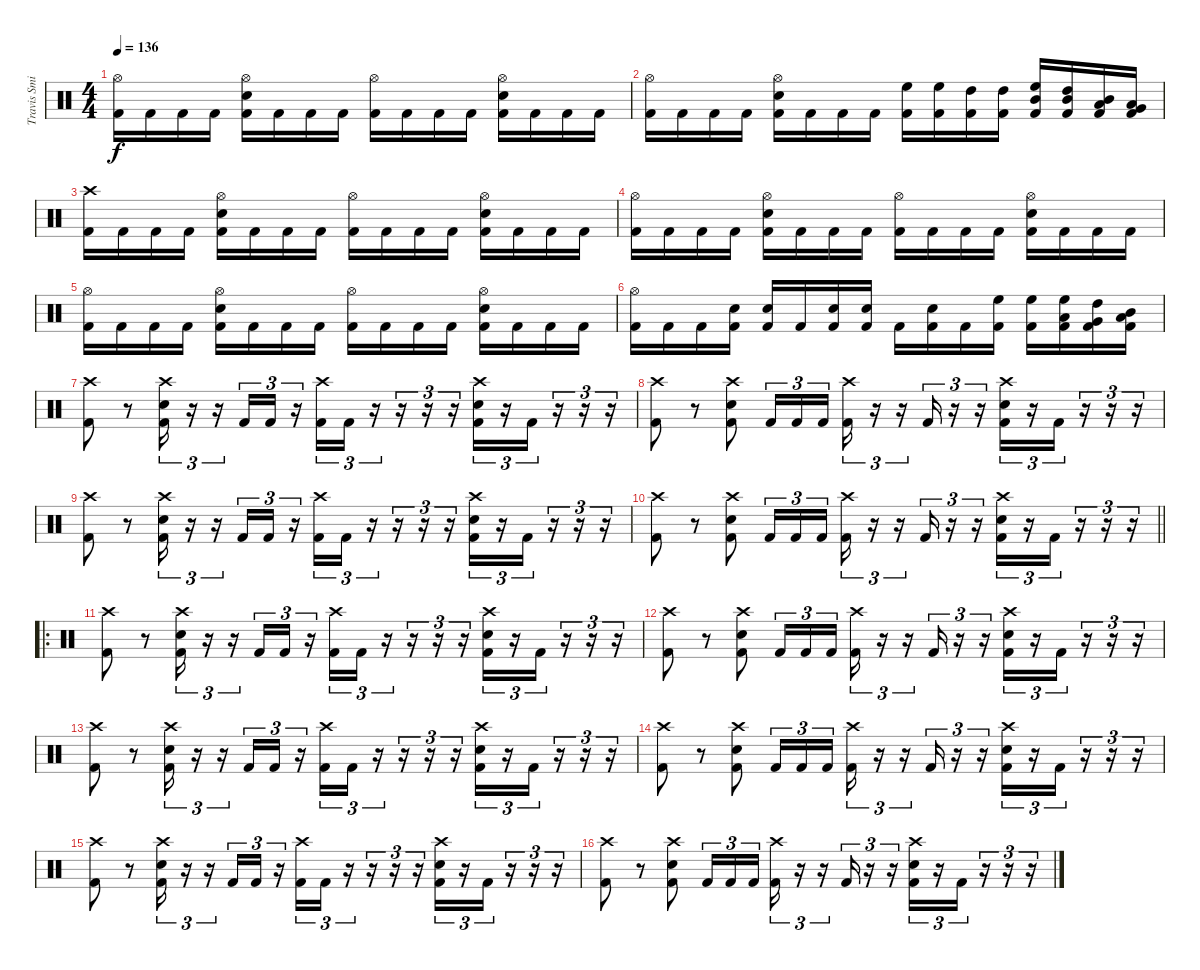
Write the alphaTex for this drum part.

\track ("Travis Smith" "Travis Smi") {instrument percussion}
\staff {score}
\articulation defaults
\ts (4 4)
\tempo 136
\clef neutral
\ks c
("Hi-Hat (open)" "Kick (hit) 2").16{dy f} "Kick (hit) 2".16 "Kick (hit) 2".16 "Kick (hit) 2".16 ("Hi-Hat (open)" "Snare (hit) 2" "Kick (hit) 2").16 "Kick (hit) 2".16 "Kick (hit) 2".16 "Kick (hit) 2".16 ("Hi-Hat (open)" "Kick (hit) 2").16 "Kick (hit) 2".16 "Kick (hit) 2".16 "Kick (hit) 2".16 ("Hi-Hat (open)" "Snare (hit) 2" "Kick (hit) 2").16 "Kick (hit) 2".16 "Kick (hit) 2".16 "Kick (hit) 2".16 |
("Hi-Hat (open)" "Kick (hit) 2").16 "Kick (hit) 2".16 "Kick (hit) 2".16 "Kick (hit) 2".16 ("Hi-Hat (open)" "Snare (hit) 2" "Kick (hit) 2").16 "Kick (hit) 2".16 "Kick (hit) 2".16 "Kick (hit) 2".16 ("High Floor Tom (hit)" "Kick (hit) 2").16 ("High Floor Tom (hit)" "Kick (hit) 2").16 ("High Tom (hit)" "Kick (hit) 2").16 ("High Tom (hit)" "Kick (hit) 2").16 ("Mid Tom (hit)" "High Floor Tom (hit)" "Kick (hit) 2").16 ("Mid Tom (hit)" "High Tom (hit)" "Kick (hit) 2").16 ("Low Tom (hit)" "Mid Tom (hit)" "Kick (hit) 2").16 ("Very Low Tom (hit)" "Low Tom (hit)" "Kick (hit) 2").16 |
("Crash high (hit)" "Kick (hit) 2").16 "Kick (hit) 2".16 "Kick (hit) 2".16 "Kick (hit) 2".16 ("Hi-Hat (open)" "Snare (hit) 2" "Kick (hit) 2").16 "Kick (hit) 2".16 "Kick (hit) 2".16 "Kick (hit) 2".16 ("Hi-Hat (open)" "Kick (hit) 2").16 "Kick (hit) 2".16 "Kick (hit) 2".16 "Kick (hit) 2".16 ("Hi-Hat (open)" "Snare (hit) 2" "Kick (hit) 2").16 "Kick (hit) 2".16 "Kick (hit) 2".16 "Kick (hit) 2".16 |
("Hi-Hat (open)" "Kick (hit) 2").16 "Kick (hit) 2".16 "Kick (hit) 2".16 "Kick (hit) 2".16 ("Hi-Hat (open)" "Snare (hit) 2" "Kick (hit) 2").16 "Kick (hit) 2".16 "Kick (hit) 2".16 "Kick (hit) 2".16 ("Hi-Hat (open)" "Kick (hit) 2").16 "Kick (hit) 2".16 "Kick (hit) 2".16 "Kick (hit) 2".16 ("Hi-Hat (open)" "Snare (hit) 2" "Kick (hit) 2").16 "Kick (hit) 2".16 "Kick (hit) 2".16 "Kick (hit) 2".16 |
("Hi-Hat (open)" "Kick (hit) 2").16 "Kick (hit) 2".16 "Kick (hit) 2".16 "Kick (hit) 2".16 ("Hi-Hat (open)" "Snare (hit) 2" "Kick (hit) 2").16 "Kick (hit) 2".16 "Kick (hit) 2".16 "Kick (hit) 2".16 ("Hi-Hat (open)" "Kick (hit) 2").16 "Kick (hit) 2".16 "Kick (hit) 2".16 "Kick (hit) 2".16 ("Hi-Hat (open)" "Snare (hit) 2" "Kick (hit) 2").16 "Kick (hit) 2".16 "Kick (hit) 2".16 "Kick (hit) 2".16 |
("Hi-Hat (open)" "Kick (hit) 2").16 "Kick (hit) 2".16 "Kick (hit) 2".16 ("Snare (hit) 2" "Kick (hit) 2").16 ("Snare (hit) 2" "Kick (hit) 2").16 "Kick (hit) 2".16 ("Snare (hit) 2" "Kick (hit) 2").16 ("Snare (hit) 2" "Kick (hit) 2").16 "Kick (hit) 2".16 ("Snare (hit) 2" "Kick (hit) 2").16 "Kick (hit) 2".16 ("High Floor Tom (hit)" "Kick (hit) 2").16 ("High Floor Tom (hit)" "Kick (hit) 2").16 ("Low Tom (hit)" "High Floor Tom (hit)" "Kick (hit) 2").16 ("Very Low Tom (hit)" "High Tom (hit)" "Kick (hit) 2").16 ("Low Floor Tom (hit)" "Mid Tom (hit)" "Kick (hit) 2").16 |
("Crash high (hit)" "Kick (hit) 2").8 r.8 ("Crash high (hit)" "Snare (hit) 2" "Kick (hit) 2").16{tu (3 2)} r.16{tu (3 2)} r.16{tu (3 2)} "Kick (hit) 2".16{tu (3 2)} "Kick (hit) 2".16{tu (3 2)} r.16{tu (3 2)} ("Crash high (hit)" "Kick (hit) 2").16{tu (3 2)} "Kick (hit) 2".16{tu (3 2)} r.16{tu (3 2)} r.16{tu (3 2)} r.16{tu (3 2)} r.16{tu (3 2)} ("Crash high (hit)" "Snare (hit) 2" "Kick (hit) 2").16{tu (3 2)} r.16{tu (3 2)} "Kick (hit) 2".16{tu (3 2)} r.16{tu (3 2)} r.16{tu (3 2)} r.16{tu (3 2)} |
("Crash high (hit)" "Kick (hit) 2").8 r.8 ("Crash high (hit)" "Snare (hit) 2" "Kick (hit) 2").8 "Kick (hit) 2".16{tu (3 2)} "Kick (hit) 2".16{tu (3 2)} "Kick (hit) 2".16{tu (3 2)} ("Crash high (hit)" "Kick (hit) 2").16{tu (3 2)} r.16{tu (3 2)} r.16{tu (3 2)} "Kick (hit) 2".16{tu (3 2)} r.16{tu (3 2)} r.16{tu (3 2)} ("Crash high (hit)" "Snare (hit) 2" "Kick (hit) 2").16{tu (3 2)} r.16{tu (3 2)} "Kick (hit) 2".16{tu (3 2)} r.16{tu (3 2)} r.16{tu (3 2)} r.16{tu (3 2)} |
("Crash high (hit)" "Kick (hit) 2").8 r.8 ("Crash high (hit)" "Snare (hit) 2" "Kick (hit) 2").16{tu (3 2)} r.16{tu (3 2)} r.16{tu (3 2)} "Kick (hit) 2".16{tu (3 2)} "Kick (hit) 2".16{tu (3 2)} r.16{tu (3 2)} ("Crash high (hit)" "Kick (hit) 2").16{tu (3 2)} "Kick (hit) 2".16{tu (3 2)} r.16{tu (3 2)} r.16{tu (3 2)} r.16{tu (3 2)} r.16{tu (3 2)} ("Crash high (hit)" "Snare (hit) 2" "Kick (hit) 2").16{tu (3 2)} r.16{tu (3 2)} "Kick (hit) 2".16{tu (3 2)} r.16{tu (3 2)} r.16{tu (3 2)} r.16{tu (3 2)} |
\barLineRight lightlight
("Crash high (hit)" "Kick (hit) 2").8 r.8 ("Crash high (hit)" "Snare (hit) 2" "Kick (hit) 2").8 "Kick (hit) 2".16{tu (3 2)} "Kick (hit) 2".16{tu (3 2)} "Kick (hit) 2".16{tu (3 2)} ("Crash high (hit)" "Kick (hit) 2").16{tu (3 2)} r.16{tu (3 2)} r.16{tu (3 2)} "Kick (hit) 2".16{tu (3 2)} r.16{tu (3 2)} r.16{tu (3 2)} ("Crash high (hit)" "Snare (hit) 2" "Kick (hit) 2").16{tu (3 2)} r.16{tu (3 2)} "Kick (hit) 2".16{tu (3 2)} r.16{tu (3 2)} r.16{tu (3 2)} r.16{tu (3 2)} |
\ro
("Crash high (hit)" "Kick (hit) 2").8 r.8 ("Crash high (hit)" "Snare (hit) 2" "Kick (hit) 2").16{tu (3 2)} r.16{tu (3 2)} r.16{tu (3 2)} "Kick (hit) 2".16{tu (3 2)} "Kick (hit) 2".16{tu (3 2)} r.16{tu (3 2)} ("Crash high (hit)" "Kick (hit) 2").16{tu (3 2)} "Kick (hit) 2".16{tu (3 2)} r.16{tu (3 2)} r.16{tu (3 2)} r.16{tu (3 2)} r.16{tu (3 2)} ("Crash high (hit)" "Snare (hit) 2" "Kick (hit) 2").16{tu (3 2)} r.16{tu (3 2)} "Kick (hit) 2".16{tu (3 2)} r.16{tu (3 2)} r.16{tu (3 2)} r.16{tu (3 2)} |
("Crash high (hit)" "Kick (hit) 2").8 r.8 ("Crash high (hit)" "Snare (hit) 2" "Kick (hit) 2").8 "Kick (hit) 2".16{tu (3 2)} "Kick (hit) 2".16{tu (3 2)} "Kick (hit) 2".16{tu (3 2)} ("Crash high (hit)" "Kick (hit) 2").16{tu (3 2)} r.16{tu (3 2)} r.16{tu (3 2)} "Kick (hit) 2".16{tu (3 2)} r.16{tu (3 2)} r.16{tu (3 2)} ("Crash high (hit)" "Snare (hit) 2" "Kick (hit) 2").16{tu (3 2)} r.16{tu (3 2)} "Kick (hit) 2".16{tu (3 2)} r.16{tu (3 2)} r.16{tu (3 2)} r.16{tu (3 2)} |
("Crash high (hit)" "Kick (hit) 2").8 r.8 ("Crash high (hit)" "Snare (hit) 2" "Kick (hit) 2").16{tu (3 2)} r.16{tu (3 2)} r.16{tu (3 2)} "Kick (hit) 2".16{tu (3 2)} "Kick (hit) 2".16{tu (3 2)} r.16{tu (3 2)} ("Crash high (hit)" "Kick (hit) 2").16{tu (3 2)} "Kick (hit) 2".16{tu (3 2)} r.16{tu (3 2)} r.16{tu (3 2)} r.16{tu (3 2)} r.16{tu (3 2)} ("Crash high (hit)" "Snare (hit) 2" "Kick (hit) 2").16{tu (3 2)} r.16{tu (3 2)} "Kick (hit) 2".16{tu (3 2)} r.16{tu (3 2)} r.16{tu (3 2)} r.16{tu (3 2)} |
("Crash high (hit)" "Kick (hit) 2").8 r.8 ("Crash high (hit)" "Snare (hit) 2" "Kick (hit) 2").8 "Kick (hit) 2".16{tu (3 2)} "Kick (hit) 2".16{tu (3 2)} "Kick (hit) 2".16{tu (3 2)} ("Crash high (hit)" "Kick (hit) 2").16{tu (3 2)} r.16{tu (3 2)} r.16{tu (3 2)} "Kick (hit) 2".16{tu (3 2)} r.16{tu (3 2)} r.16{tu (3 2)} ("Crash high (hit)" "Snare (hit) 2" "Kick (hit) 2").16{tu (3 2)} r.16{tu (3 2)} "Kick (hit) 2".16{tu (3 2)} r.16{tu (3 2)} r.16{tu (3 2)} r.16{tu (3 2)} |
("Crash high (hit)" "Kick (hit) 2").8 r.8 ("Crash high (hit)" "Snare (hit) 2" "Kick (hit) 2").16{tu (3 2)} r.16{tu (3 2)} r.16{tu (3 2)} "Kick (hit) 2".16{tu (3 2)} "Kick (hit) 2".16{tu (3 2)} r.16{tu (3 2)} ("Crash high (hit)" "Kick (hit) 2").16{tu (3 2)} "Kick (hit) 2".16{tu (3 2)} r.16{tu (3 2)} r.16{tu (3 2)} r.16{tu (3 2)} r.16{tu (3 2)} ("Crash high (hit)" "Snare (hit) 2" "Kick (hit) 2").16{tu (3 2)} r.16{tu (3 2)} "Kick (hit) 2".16{tu (3 2)} r.16{tu (3 2)} r.16{tu (3 2)} r.16{tu (3 2)} |
("Crash high (hit)" "Kick (hit) 2").8 r.8 ("Crash high (hit)" "Snare (hit) 2" "Kick (hit) 2").8 "Kick (hit) 2".16{tu (3 2)} "Kick (hit) 2".16{tu (3 2)} "Kick (hit) 2".16{tu (3 2)} ("Crash high (hit)" "Kick (hit) 2").16{tu (3 2)} r.16{tu (3 2)} r.16{tu (3 2)} "Kick (hit) 2".16{tu (3 2)} r.16{tu (3 2)} r.16{tu (3 2)} ("Crash high (hit)" "Snare (hit) 2" "Kick (hit) 2").16{tu (3 2)} r.16{tu (3 2)} "Kick (hit) 2".16{tu (3 2)} r.16{tu (3 2)} r.16{tu (3 2)} r.16{tu (3 2)}
